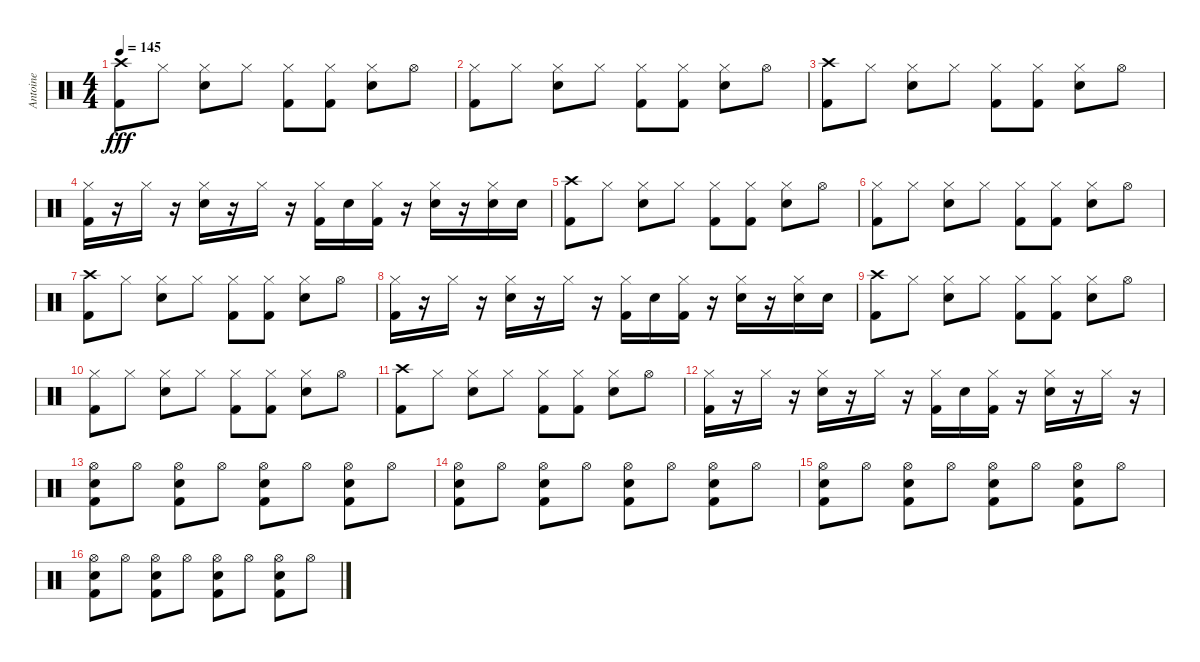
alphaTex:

\track ("Antoine" "Antoine") {instrument percussion}
\staff {score}
\articulation defaults
\ts (4 4)
\tempo 145
\clef neutral
\ks c
("Crash high (hit)" "Kick (hit) 2").8{dy fff} "Hi-Hat (closed)".8 ("Hi-Hat (closed)" "Snare (hit) 2").8 "Hi-Hat (closed)".8 ("Hi-Hat (closed)" "Kick (hit) 2").8 ("Hi-Hat (closed)" "Kick (hit) 2").8 ("Hi-Hat (closed)" "Snare (hit) 2").8 "Hi-Hat (open)".8 |
("Hi-Hat (closed)" "Kick (hit) 2").8 "Hi-Hat (closed)".8 ("Hi-Hat (closed)" "Snare (hit) 2").8 "Hi-Hat (closed)".8 ("Hi-Hat (closed)" "Kick (hit) 2").8 ("Hi-Hat (closed)" "Kick (hit) 2").8 ("Hi-Hat (closed)" "Snare (hit) 2").8 "Hi-Hat (open)".8 |
("Crash high (hit)" "Kick (hit) 2").8 "Hi-Hat (closed)".8 ("Hi-Hat (closed)" "Snare (hit) 2").8 "Hi-Hat (closed)".8 ("Hi-Hat (closed)" "Kick (hit) 2").8 ("Hi-Hat (closed)" "Kick (hit) 2").8 ("Hi-Hat (closed)" "Snare (hit) 2").8 "Hi-Hat (open)".8 |
("Hi-Hat (closed)" "Kick (hit) 2").16 r.16 "Hi-Hat (closed)".16 r.16 ("Hi-Hat (closed)" "Snare (hit) 2").16 r.16 "Hi-Hat (closed)".16 r.16 ("Hi-Hat (closed)" "Kick (hit) 2").16 "Snare (hit) 2".16 ("Hi-Hat (closed)" "Kick (hit) 2").16 r.16 ("Hi-Hat (closed)" "Snare (hit) 2").16 r.16 ("Hi-Hat (closed)" "Snare (hit) 2").16 "Snare (hit) 2".16 |
("Crash high (hit)" "Kick (hit) 2").8 "Hi-Hat (closed)".8 ("Hi-Hat (closed)" "Snare (hit) 2").8 "Hi-Hat (closed)".8 ("Hi-Hat (closed)" "Kick (hit) 2").8 ("Hi-Hat (closed)" "Kick (hit) 2").8 ("Hi-Hat (closed)" "Snare (hit) 2").8 "Hi-Hat (open)".8 |
("Hi-Hat (closed)" "Kick (hit) 2").8 "Hi-Hat (closed)".8 ("Hi-Hat (closed)" "Snare (hit) 2").8 "Hi-Hat (closed)".8 ("Hi-Hat (closed)" "Kick (hit) 2").8 ("Hi-Hat (closed)" "Kick (hit) 2").8 ("Hi-Hat (closed)" "Snare (hit) 2").8 "Hi-Hat (open)".8 |
("Crash high (hit)" "Kick (hit) 2").8 "Hi-Hat (closed)".8 ("Hi-Hat (closed)" "Snare (hit) 2").8 "Hi-Hat (closed)".8 ("Hi-Hat (closed)" "Kick (hit) 2").8 ("Hi-Hat (closed)" "Kick (hit) 2").8 ("Hi-Hat (closed)" "Snare (hit) 2").8 "Hi-Hat (open)".8 |
("Hi-Hat (closed)" "Kick (hit) 2").16 r.16 "Hi-Hat (closed)".16 r.16 ("Hi-Hat (closed)" "Snare (hit) 2").16 r.16 "Hi-Hat (closed)".16 r.16 ("Hi-Hat (closed)" "Kick (hit) 2").16 "Snare (hit) 2".16 ("Hi-Hat (closed)" "Kick (hit) 2").16 r.16 ("Hi-Hat (closed)" "Snare (hit) 2").16 r.16 ("Hi-Hat (closed)" "Snare (hit) 2").16 "Snare (hit) 2".16 |
("Crash high (hit)" "Kick (hit) 2").8 "Hi-Hat (closed)".8 ("Hi-Hat (closed)" "Snare (hit) 2").8 "Hi-Hat (closed)".8 ("Hi-Hat (closed)" "Kick (hit) 2").8 ("Hi-Hat (closed)" "Kick (hit) 2").8 ("Hi-Hat (closed)" "Snare (hit) 2").8 "Hi-Hat (open)".8 |
("Hi-Hat (closed)" "Kick (hit) 2").8 "Hi-Hat (closed)".8 ("Hi-Hat (closed)" "Snare (hit) 2").8 "Hi-Hat (closed)".8 ("Hi-Hat (closed)" "Kick (hit) 2").8 ("Hi-Hat (closed)" "Kick (hit) 2").8 ("Hi-Hat (closed)" "Snare (hit) 2").8 "Hi-Hat (open)".8 |
("Crash high (hit)" "Kick (hit) 2").8 "Hi-Hat (closed)".8 ("Hi-Hat (closed)" "Snare (hit) 2").8 "Hi-Hat (closed)".8 ("Hi-Hat (closed)" "Kick (hit) 2").8 ("Hi-Hat (closed)" "Kick (hit) 2").8 ("Hi-Hat (closed)" "Snare (hit) 2").8 "Hi-Hat (open)".8 |
("Hi-Hat (closed)" "Kick (hit) 2").16 r.16 "Hi-Hat (closed)".16 r.16 ("Hi-Hat (closed)" "Snare (hit) 2").16 r.16 "Hi-Hat (closed)".16 r.16 ("Hi-Hat (closed)" "Kick (hit) 2").16 "Snare (hit) 2".16 ("Hi-Hat (closed)" "Kick (hit) 2").16 r.16 ("Hi-Hat (closed)" "Snare (hit) 2").16 r.16 "Hi-Hat (closed)".16 r.16 |
("Hi-Hat (open)" "Snare (hit) 2" "Kick (hit) 2").8 "Hi-Hat (open)".8 ("Hi-Hat (open)" "Snare (hit) 2" "Kick (hit) 2").8 "Hi-Hat (open)".8 ("Hi-Hat (open)" "Snare (hit) 2" "Kick (hit) 2").8 "Hi-Hat (open)".8 ("Hi-Hat (open)" "Snare (hit) 2" "Kick (hit) 2").8 "Hi-Hat (open)".8 |
("Hi-Hat (open)" "Snare (hit) 2" "Kick (hit) 2").8 "Hi-Hat (open)".8 ("Hi-Hat (open)" "Snare (hit) 2" "Kick (hit) 2").8 "Hi-Hat (open)".8 ("Hi-Hat (open)" "Snare (hit) 2" "Kick (hit) 2").8 "Hi-Hat (open)".8 ("Hi-Hat (open)" "Snare (hit) 2" "Kick (hit) 2").8 "Hi-Hat (open)".8 |
("Hi-Hat (open)" "Snare (hit) 2" "Kick (hit) 2").8 "Hi-Hat (open)".8 ("Hi-Hat (open)" "Snare (hit) 2" "Kick (hit) 2").8 "Hi-Hat (open)".8 ("Hi-Hat (open)" "Snare (hit) 2" "Kick (hit) 2").8 "Hi-Hat (open)".8 ("Hi-Hat (open)" "Snare (hit) 2" "Kick (hit) 2").8 "Hi-Hat (open)".8 |
("Hi-Hat (open)" "Snare (hit) 2" "Kick (hit) 2").8 "Hi-Hat (open)".8 ("Hi-Hat (open)" "Snare (hit) 2" "Kick (hit) 2").8 "Hi-Hat (open)".8 ("Hi-Hat (open)" "Snare (hit) 2" "Kick (hit) 2").8 "Hi-Hat (open)".8 ("Hi-Hat (open)" "Snare (hit) 2" "Kick (hit) 2").8 "Hi-Hat (open)".8
